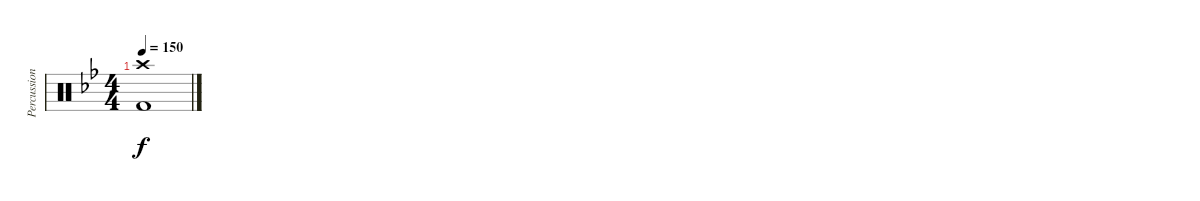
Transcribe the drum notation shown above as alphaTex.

\track ("Percussion" "Percussion") {instrument percussion}
\staff {score}
\articulation defaults
\ts (4 4)
\tempo 150
\clef neutral
\ks gminor
("Crash high (hit)" "Kick (hit) 2").1{dy f}
